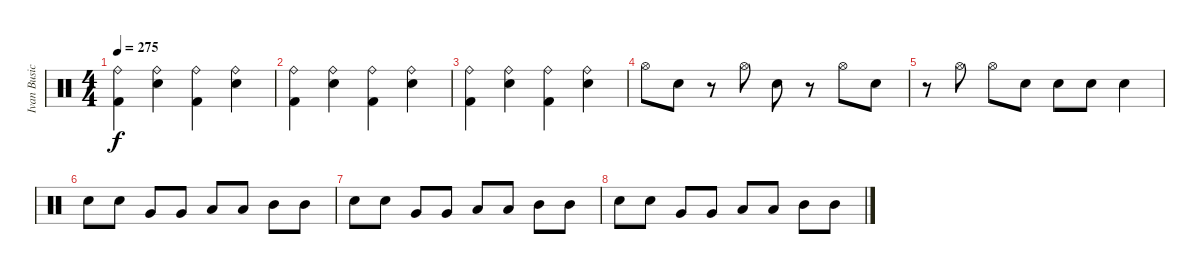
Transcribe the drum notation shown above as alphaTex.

\track ("Ivan Busic" "Ivan Busic") {instrument percussion}
\staff {score}
\articulation defaults
\ts (4 4)
\tempo 275
\clef neutral
\ks c
("Ride (bell)" "Kick (hit) 2").4{dy f} ("Ride (bell)" "Electric Snare (hit)").4 ("Ride (bell)" "Kick (hit) 2").4 ("Ride (bell)" "Electric Snare (hit)").4 |
("Ride (bell)" "Kick (hit) 2").4 ("Ride (bell)" "Electric Snare (hit)").4 ("Ride (bell)" "Kick (hit) 2").4 ("Ride (bell)" "Electric Snare (hit)").4 |
("Ride (bell)" "Kick (hit) 2").4 ("Ride (bell)" "Electric Snare (hit)").4 ("Ride (bell)" "Kick (hit) 2").4 ("Ride (bell)" "Electric Snare (hit)").4 |
"Hi-Hat (open)".8 "Electric Snare (hit)".8 r.8 "Hi-Hat (open)".8 "Electric Snare (hit)".8 r.8 "Hi-Hat (open)".8 "Electric Snare (hit)".8 |
r.8 "Hi-Hat (open)".8 "Hi-Hat (open)".8 "Electric Snare (hit)".8 "Electric Snare (hit)".8 "Electric Snare (hit)".8 "Electric Snare (hit)".4 |
"Electric Snare (hit)".8 "Electric Snare (hit)".8 "Very Low Tom (hit)".8 "Very Low Tom (hit)".8 "Low Tom (hit)".8 "Low Tom (hit)".8 "Mid Tom (hit)".8 "Mid Tom (hit)".8 |
"Electric Snare (hit)".8 "Electric Snare (hit)".8 "Very Low Tom (hit)".8 "Very Low Tom (hit)".8 "Low Tom (hit)".8 "Low Tom (hit)".8 "Mid Tom (hit)".8 "Mid Tom (hit)".8 |
"Electric Snare (hit)".8 "Electric Snare (hit)".8 "Very Low Tom (hit)".8 "Very Low Tom (hit)".8 "Low Tom (hit)".8 "Low Tom (hit)".8 "Mid Tom (hit)".8 "Mid Tom (hit)".8
